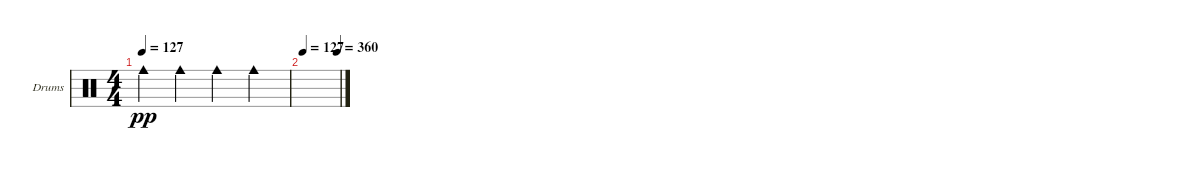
\defaultSystemsLayout 4
\bracketExtendMode groupsimilarinstruments
\firstSystemTrackNameOrientation horizontal
\otherSystemsTrackNameOrientation horizontal
\track ("Drumkit" "Drums") {instrument percussion}
\staff {score}
\articulation defaults
\ts (4 4)
\tempo 127
\clef neutral
\ks c "Cowbell medium (hit)".4{dy pp} "Cowbell medium (hit)".4 "Cowbell medium (hit)".4 "Cowbell medium (hit)".4
|
\tempo 127
\tempo (360 0.94375)
